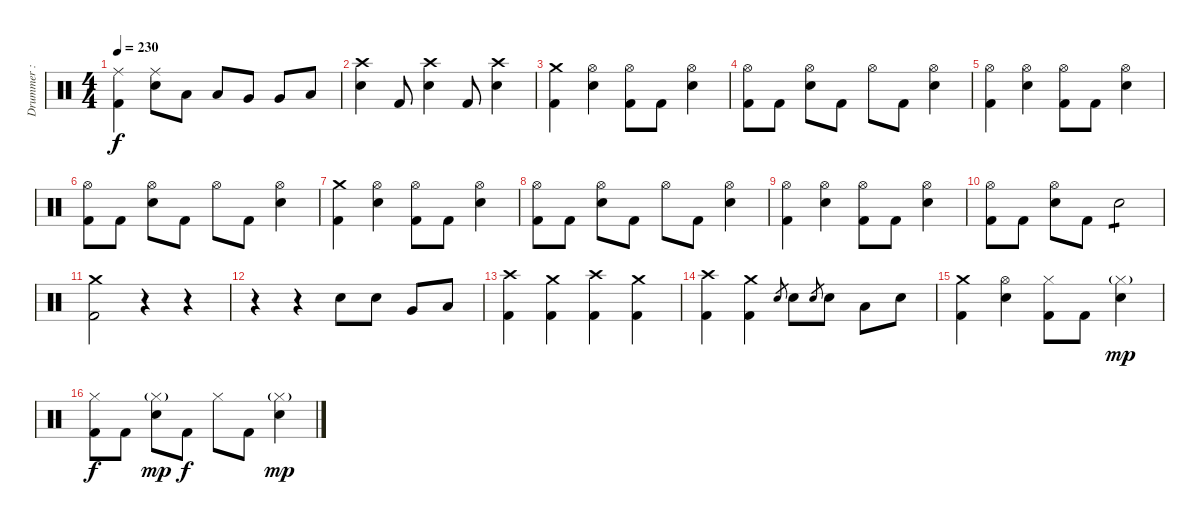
\track ("Drummer : Tainaka Ritsu - Swan" "Drummer : ") {instrument percussion}
\staff {score}
\articulation defaults
\ts (4 4)
\tempo 230
\clef neutral
\ks c
("Ride (middle)" "Kick (hit) 2").4{dy f} ("Ride (middle)" "Electric Snare (hit)").8 "Low Tom (hit)".8 "Low Tom (hit)".8 "Very Low Tom (hit)".8 "Very Low Tom (hit)".8 "Low Floor Tom (hit)".8 |
("Crash high (hit)" "Electric Snare (hit)").4 "Kick (hit) 2".8 ("Crash high (hit)" "Electric Snare (hit)").4 "Kick (hit) 2".8 ("Crash high (hit)" "Electric Snare (hit)").4 |
("Crash medium (hit)" "Kick (hit) 2").4 ("Hi-Hat (open)" "Electric Snare (hit)").4 ("Hi-Hat (open)" "Kick (hit) 2").8 "Kick (hit) 2".8 ("Hi-Hat (open)" "Electric Snare (hit)").4 |
("Hi-Hat (open)" "Kick (hit) 2").8 "Kick (hit) 2".8 ("Hi-Hat (open)" "Electric Snare (hit)").8 "Kick (hit) 2".8 "Hi-Hat (open)".8 "Kick (hit) 2".8 ("Hi-Hat (open)" "Electric Snare (hit)").4 |
("Hi-Hat (open)" "Kick (hit) 2").4 ("Hi-Hat (open)" "Electric Snare (hit)").4 ("Hi-Hat (open)" "Kick (hit) 2").8 "Kick (hit) 2".8 ("Hi-Hat (open)" "Electric Snare (hit)").4 |
("Hi-Hat (open)" "Kick (hit) 2").8 "Kick (hit) 2".8 ("Hi-Hat (open)" "Electric Snare (hit)").8 "Kick (hit) 2".8 "Hi-Hat (open)".8 "Kick (hit) 2".8 ("Hi-Hat (open)" "Electric Snare (hit)").4 |
("Crash medium (hit)" "Kick (hit) 2").4 ("Hi-Hat (open)" "Electric Snare (hit)").4 ("Hi-Hat (open)" "Kick (hit) 2").8 "Kick (hit) 2".8 ("Hi-Hat (open)" "Electric Snare (hit)").4 |
("Hi-Hat (open)" "Kick (hit) 2").8 "Kick (hit) 2".8 ("Hi-Hat (open)" "Electric Snare (hit)").8 "Kick (hit) 2".8 "Hi-Hat (open)".8 "Kick (hit) 2".8 ("Hi-Hat (open)" "Electric Snare (hit)").4 |
("Hi-Hat (open)" "Kick (hit) 2").4 ("Hi-Hat (open)" "Electric Snare (hit)").4 ("Hi-Hat (open)" "Kick (hit) 2").8 "Kick (hit) 2".8 ("Hi-Hat (open)" "Electric Snare (hit)").4 |
("Hi-Hat (open)" "Kick (hit) 2").8 "Kick (hit) 2".8 ("Hi-Hat (open)" "Electric Snare (hit)").8 "Kick (hit) 2".8 "Electric Snare (hit)".2{tp 1} |
("Crash medium (hit)" "Kick (hit) 2").2 r.4 r.4 |
r.4 r.4 "Electric Snare (hit)".8 "Electric Snare (hit)".8 "Very Low Tom (hit)".8 "Low Floor Tom (hit)".8 |
("Crash high (hit)" "Kick (hit) 2").4 ("Crash medium (hit)" "Kick (hit) 2").4 ("Crash high (hit)" "Kick (hit) 2").4 ("Crash medium (hit)" "Kick (hit) 2").4 |
("Crash high (hit)" "Kick (hit) 2").4 ("Crash medium (hit)" "Kick (hit) 2").4 "Electric Snare (hit)".8{gr} "Electric Snare (hit)".8 "Electric Snare (hit)".8{gr} "Electric Snare (hit)".8 "Low Floor Tom (hit)".8 "Electric Snare (hit)".8 |
("Crash medium (hit)" "Kick (hit) 2").4 ("Hi-Hat (open)" "Electric Snare (hit)").4 ("Hi-Hat (closed)" "Kick (hit) 2").8 "Kick (hit) 2".8 ("Hi-Hat (closed)"{g} "Electric Snare (hit)").4{dy mp} |
("Hi-Hat (closed)" "Kick (hit) 2").8{dy f} "Kick (hit) 2".8 ("Hi-Hat (closed)"{g} "Electric Snare (hit)").8{dy mp} "Kick (hit) 2".8{dy f} "Hi-Hat (closed)".8 "Kick (hit) 2".8 ("Hi-Hat (closed)"{g} "Electric Snare (hit)").4{dy mp}
